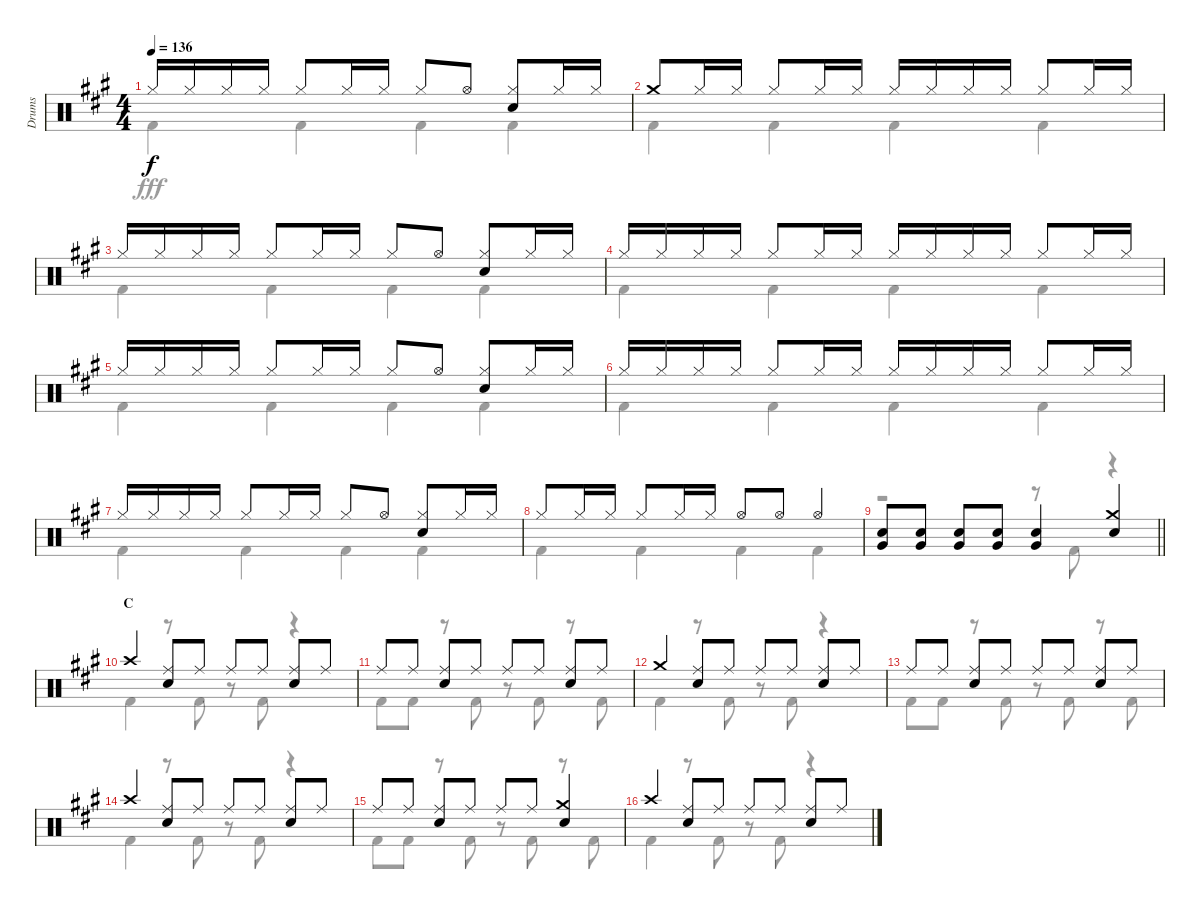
\track ("Drums" "Drums") {instrument percussion}
\staff {score}
\articulation defaults
\voice
\ts (4 4)
\tempo 136
\clef neutral
\ks a "Hi-Hat (closed)".16{dy f} "Hi-Hat (closed)".16 "Hi-Hat (closed)".16 "Hi-Hat (closed)".16 "Hi-Hat (closed)".8 "Hi-Hat (closed)".16 "Hi-Hat (closed)".16 "Hi-Hat (closed)".8 "Hi-Hat (open)".8
("Hi-Hat (closed)" "Snare (hit) 2").8 "Hi-Hat (closed)".16 "Hi-Hat (closed)".16 |
"Crash medium (hit)".8 "Hi-Hat (closed)".16 "Hi-Hat (closed)".16 "Hi-Hat (closed)".8 "Hi-Hat (closed)".16 "Hi-Hat (closed)".16 "Hi-Hat (closed)".16 "Hi-Hat (closed)".16 "Hi-Hat (closed)".16 "Hi-Hat (closed)".16 "Hi-Hat (closed)".8 "Hi-Hat (closed)".16 "Hi-Hat (closed)".16 |
"Hi-Hat (closed)".16 "Hi-Hat (closed)".16 "Hi-Hat (closed)".16 "Hi-Hat (closed)".16 "Hi-Hat (closed)".8 "Hi-Hat (closed)".16 "Hi-Hat (closed)".16 "Hi-Hat (closed)".8 "Hi-Hat (open)".8 ("Hi-Hat (closed)" "Snare (hit) 2").8 "Hi-Hat (closed)".16 "Hi-Hat (closed)".16 |
"Hi-Hat (closed)".16 "Hi-Hat (closed)".16 "Hi-Hat (closed)".16 "Hi-Hat (closed)".16 "Hi-Hat (closed)".8 "Hi-Hat (closed)".16 "Hi-Hat (closed)".16 "Hi-Hat (closed)".16 "Hi-Hat (closed)".16 "Hi-Hat (closed)".16 "Hi-Hat (closed)".16 "Hi-Hat (closed)".8 "Hi-Hat (closed)".16 "Hi-Hat (closed)".16 |
"Hi-Hat (closed)".16 "Hi-Hat (closed)".16 "Hi-Hat (closed)".16 "Hi-Hat (closed)".16 "Hi-Hat (closed)".8 "Hi-Hat (closed)".16 "Hi-Hat (closed)".16 "Hi-Hat (closed)".8 "Hi-Hat (open)".8 ("Hi-Hat (closed)" "Snare (hit) 2").8 "Hi-Hat (closed)".16 "Hi-Hat (closed)".16 |
"Hi-Hat (closed)".16 "Hi-Hat (closed)".16 "Hi-Hat (closed)".16 "Hi-Hat (closed)".16 "Hi-Hat (closed)".8 "Hi-Hat (closed)".16 "Hi-Hat (closed)".16 "Hi-Hat (closed)".16 "Hi-Hat (closed)".16 "Hi-Hat (closed)".16 "Hi-Hat (closed)".16 "Hi-Hat (closed)".8 "Hi-Hat (closed)".16 "Hi-Hat (closed)".16 |
"Hi-Hat (closed)".16 "Hi-Hat (closed)".16 "Hi-Hat (closed)".16 "Hi-Hat (closed)".16 "Hi-Hat (closed)".8 "Hi-Hat (closed)".16 "Hi-Hat (closed)".16 "Hi-Hat (closed)".8 "Hi-Hat (open)".8 ("Hi-Hat (closed)" "Snare (hit) 2").8 "Hi-Hat (closed)".16 "Hi-Hat (closed)".16 |
"Hi-Hat (closed)".8 "Hi-Hat (closed)".16 "Hi-Hat (closed)".16 "Hi-Hat (closed)".8 "Hi-Hat (closed)".16 "Hi-Hat (closed)".16 "Hi-Hat (open)".8 "Hi-Hat (open)".8 "Hi-Hat (open)".4 |
\barLineRight lightlight
("Snare (hit) 2" "Very Low Tom (hit)").8 ("Snare (hit) 2" "Very Low Tom (hit)").8 ("Snare (hit) 2" "Very Low Tom (hit)").8 ("Snare (hit) 2" "Very Low Tom (hit)").8 ("Snare (hit) 2" "Very Low Tom (hit)").4 ("Crash medium (hit)" "Snare (hit) 2").4 |
\section ("" "C")
"Crash high (hit)".4 ("Ride (middle)" "Snare (hit) 2").8 "Ride (middle)".8 "Ride (middle)".8 "Ride (middle)".8 ("Ride (middle)" "Snare (hit) 2").8 "Ride (middle)".8 |
"Ride (middle)".8 "Ride (middle)".8 ("Ride (middle)" "Snare (hit) 2").8 "Ride (middle)".8 "Ride (middle)".8 "Ride (middle)".8 ("Ride (middle)" "Snare (hit) 2").8 "Ride (middle)".8 |
"Crash medium (hit)".4 ("Ride (middle)" "Snare (hit) 2").8 "Ride (middle)".8 "Ride (middle)".8 "Ride (middle)".8 ("Ride (middle)" "Snare (hit) 2").8 "Ride (middle)".8 |
"Ride (middle)".8 "Ride (middle)".8 ("Ride (middle)" "Snare (hit) 2").8 "Ride (middle)".8 "Ride (middle)".8 "Ride (middle)".8 ("Ride (middle)" "Snare (hit) 2").8 "Ride (middle)".8 |
"Crash high (hit)".4 ("Ride (middle)" "Snare (hit) 2").8 "Ride (middle)".8 "Ride (middle)".8 "Ride (middle)".8 ("Ride (middle)" "Snare (hit) 2").8 "Ride (middle)".8 |
"Ride (middle)".8 "Ride (middle)".8 ("Ride (middle)" "Snare (hit) 2").8 "Ride (middle)".8 "Ride (middle)".8 "Ride (middle)".8 ("Crash medium (hit)" "Snare (hit) 2").4 |
"Crash high (hit)".4 ("Ride (middle)" "Snare (hit) 2").8 "Ride (middle)".8 "Ride (middle)".8 "Ride (middle)".8 ("Ride (middle)" "Snare (hit) 2").8 "Ride (middle)".8
\voice
\clef neutral
\ottava regular
\simile none
\ks a "Kick (hit) 2".4{dy fff} "Kick (hit) 2".4 "Kick (hit) 2".4 "Kick (hit) 2".4
|
"Kick (hit) 2".4 "Kick (hit) 2".4 "Kick (hit) 2".4 "Kick (hit) 2".4 |
"Kick (hit) 2".4 "Kick (hit) 2".4 "Kick (hit) 2".4 "Kick (hit) 2".4 |
"Kick (hit) 2".4 "Kick (hit) 2".4 "Kick (hit) 2".4 "Kick (hit) 2".4 |
"Kick (hit) 2".4 "Kick (hit) 2".4 "Kick (hit) 2".4 "Kick (hit) 2".4 |
"Kick (hit) 2".4 "Kick (hit) 2".4 "Kick (hit) 2".4 "Kick (hit) 2".4 |
"Kick (hit) 2".4 "Kick (hit) 2".4 "Kick (hit) 2".4 "Kick (hit) 2".4 |
"Kick (hit) 2".4 "Kick (hit) 2".4 "Kick (hit) 2".4 "Kick (hit) 2".4 |
\barLineRight lightlight
r.2 r.8 "Kick (hit) 2".8 r.4 |
"Kick (hit) 2".4 r.8 "Kick (hit) 2".8 r.8 "Kick (hit) 2".8 r.4 |
"Kick (hit) 2".8 "Kick (hit) 2".8 r.8 "Kick (hit) 2".8 r.8 "Kick (hit) 2".8 r.8 "Kick (hit) 2".8 |
"Kick (hit) 2".4 r.8 "Kick (hit) 2".8 r.8 "Kick (hit) 2".8 r.4 |
"Kick (hit) 2".8 "Kick (hit) 2".8 r.8 "Kick (hit) 2".8 r.8 "Kick (hit) 2".8 r.8 "Kick (hit) 2".8 |
"Kick (hit) 2".4 r.8 "Kick (hit) 2".8 r.8 "Kick (hit) 2".8 r.4 |
"Kick (hit) 2".8 "Kick (hit) 2".8 r.8 "Kick (hit) 2".8 r.8 "Kick (hit) 2".8 r.8 "Kick (hit) 2".8 |
"Kick (hit) 2".4 r.8 "Kick (hit) 2".8 r.8 "Kick (hit) 2".8 r.4
